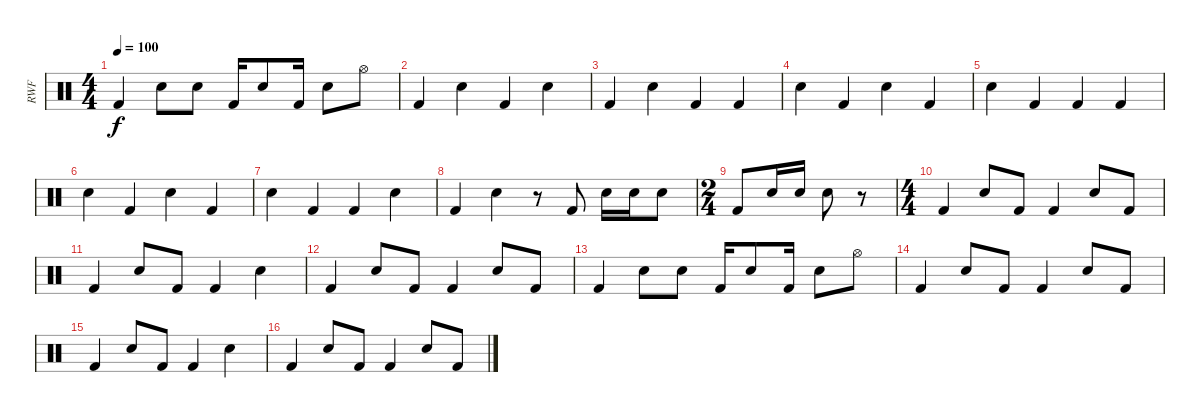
\track ("RWF" "RWF") {instrument percussion}
\staff {score}
\articulation defaults
\ts (4 4)
\tempo 100
\clef neutral
\ks c "Kick (hit) 2".4{dy f} "Electric Snare (hit)".8 "Electric Snare (hit)".8 "Kick (hit) 2".16 "Electric Snare (hit)".8 "Kick (hit) 2".16 "Electric Snare (hit)".8 "Hi-Hat (open)".8
|
"Kick (hit) 2".4 "Electric Snare (hit)".4 "Kick (hit) 2".4 "Electric Snare (hit)".4 |
"Kick (hit) 2".4 "Electric Snare (hit)".4 "Kick (hit) 2".4 "Kick (hit) 2".4 |
"Electric Snare (hit)".4 "Kick (hit) 2".4 "Electric Snare (hit)".4 "Kick (hit) 2".4 |
"Electric Snare (hit)".4 "Kick (hit) 2".4 "Kick (hit) 2".4 "Kick (hit) 2".4 |
"Electric Snare (hit)".4 "Kick (hit) 2".4 "Electric Snare (hit)".4 "Kick (hit) 2".4 |
"Electric Snare (hit)".4 "Kick (hit) 2".4 "Kick (hit) 2".4 "Electric Snare (hit)".4 |
"Kick (hit) 2".4 "Electric Snare (hit)".4 r.8 "Kick (hit) 2".8 "Electric Snare (hit)".16 "Electric Snare (hit)".16 "Electric Snare (hit)".8 |
\ts (2 4)
"Kick (hit) 2".8 "Electric Snare (hit)".16 "Electric Snare (hit)".16 "Electric Snare (hit)".8 r.8 |
\ts (4 4)
"Kick (hit) 2".4 "Electric Snare (hit)".8 "Kick (hit) 2".8 "Kick (hit) 2".4 "Electric Snare (hit)".8 "Kick (hit) 2".8 |
"Kick (hit) 2".4 "Electric Snare (hit)".8 "Kick (hit) 2".8 "Kick (hit) 2".4 "Electric Snare (hit)".4 |
"Kick (hit) 2".4 "Electric Snare (hit)".8 "Kick (hit) 2".8 "Kick (hit) 2".4 "Electric Snare (hit)".8 "Kick (hit) 2".8 |
"Kick (hit) 2".4 "Electric Snare (hit)".8 "Electric Snare (hit)".8 "Kick (hit) 2".16 "Electric Snare (hit)".8 "Kick (hit) 2".16 "Electric Snare (hit)".8 "Hi-Hat (open)".8 |
"Kick (hit) 2".4 "Electric Snare (hit)".8 "Kick (hit) 2".8 "Kick (hit) 2".4 "Electric Snare (hit)".8 "Kick (hit) 2".8 |
"Kick (hit) 2".4 "Electric Snare (hit)".8 "Kick (hit) 2".8 "Kick (hit) 2".4 "Electric Snare (hit)".4 |
"Kick (hit) 2".4 "Electric Snare (hit)".8 "Kick (hit) 2".8 "Kick (hit) 2".4 "Electric Snare (hit)".8 "Kick (hit) 2".8
